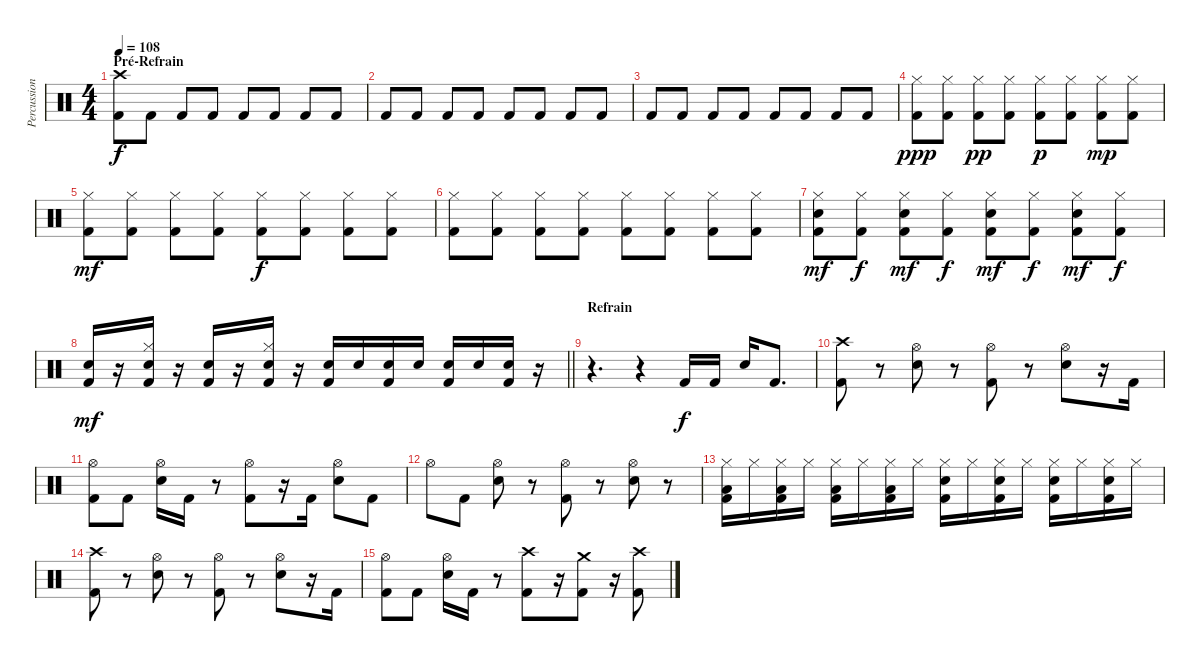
\track ("Percussions" "Percussion") {instrument percussion}
\staff {score}
\articulation defaults
\ts (4 4)
\section ("" "Pré-Refrain")
\tempo 108
\clef neutral
\ks c
("Crash high (hit)" "Kick (hit) 2").8{dy f} "Kick (hit) 2".8 "Kick (hit) 2".8 "Kick (hit) 2".8 "Kick (hit) 2".8 "Kick (hit) 2".8 "Kick (hit) 2".8 "Kick (hit) 2".8 |
"Kick (hit) 2".8 "Kick (hit) 2".8 "Kick (hit) 2".8 "Kick (hit) 2".8 "Kick (hit) 2".8 "Kick (hit) 2".8 "Kick (hit) 2".8 "Kick (hit) 2".8 |
"Kick (hit) 2".8 "Kick (hit) 2".8 "Kick (hit) 2".8 "Kick (hit) 2".8 "Kick (hit) 2".8 "Kick (hit) 2".8 "Kick (hit) 2".8 "Kick (hit) 2".8 |
("Hi-Hat (closed)" "Kick (hit) 2").8{dy ppp} ("Hi-Hat (closed)" "Kick (hit) 2").8 ("Hi-Hat (closed)" "Kick (hit) 2").8{dy pp} ("Hi-Hat (closed)" "Kick (hit) 2").8 ("Hi-Hat (closed)" "Kick (hit) 2").8{dy p} ("Hi-Hat (closed)" "Kick (hit) 2").8 ("Hi-Hat (closed)" "Kick (hit) 2").8{dy mp} ("Hi-Hat (closed)" "Kick (hit) 2").8 |
("Hi-Hat (closed)" "Kick (hit) 2").8{dy mf} ("Hi-Hat (closed)" "Kick (hit) 2").8 ("Hi-Hat (closed)" "Kick (hit) 2").8 ("Hi-Hat (closed)" "Kick (hit) 2").8 ("Hi-Hat (closed)" "Kick (hit) 2").8{dy f} ("Hi-Hat (closed)" "Kick (hit) 2").8 ("Hi-Hat (closed)" "Kick (hit) 2").8 ("Hi-Hat (closed)" "Kick (hit) 2").8 |
("Hi-Hat (closed)" "Kick (hit) 2").8 ("Hi-Hat (closed)" "Kick (hit) 2").8 ("Hi-Hat (closed)" "Kick (hit) 2").8 ("Hi-Hat (closed)" "Kick (hit) 2").8 ("Hi-Hat (closed)" "Kick (hit) 2").8 ("Hi-Hat (closed)" "Kick (hit) 2").8 ("Hi-Hat (closed)" "Kick (hit) 2").8 ("Hi-Hat (closed)" "Kick (hit) 2").8 |
("Hi-Hat (closed)" "Snare (hit) 2" "Kick (hit) 2").8{dy mf} ("Hi-Hat (closed)" "Kick (hit) 2").8{dy f} ("Hi-Hat (closed)" "Snare (hit) 2" "Kick (hit) 2").8{dy mf} ("Hi-Hat (closed)" "Kick (hit) 2").8{dy f} ("Hi-Hat (closed)" "Snare (hit) 2" "Kick (hit) 2").8{dy mf} ("Hi-Hat (closed)" "Kick (hit) 2").8{dy f} ("Hi-Hat (closed)" "Snare (hit) 2" "Kick (hit) 2").8{dy mf} ("Hi-Hat (closed)" "Kick (hit) 2").8{dy f} |
\barLineRight lightlight
("Snare (hit) 2" "Kick (hit) 2").16{dy mf} r.16 ("Hi-Hat (closed)" "Snare (hit) 2" "Kick (hit) 2").16 r.16 ("Snare (hit) 2" "Kick (hit) 2").16 r.16 ("Hi-Hat (closed)" "Snare (hit) 2" "Kick (hit) 2").16 r.16 ("Snare (hit) 2" "Kick (hit) 2").16 "Snare (hit) 2".16 ("Snare (hit) 2" "Kick (hit) 2").16 "Snare (hit) 2".16 ("Snare (hit) 2" "Kick (hit) 2").16 "Snare (hit) 2".16 ("Snare (hit) 2" "Kick (hit) 2").16 r.16 |
\section ("" "Refrain")
r.4{d} r.4 "Kick (hit) 2".16{dy f} "Kick (hit) 2".16 "Snare (hit) 2".16 "Kick (hit) 2".8{d} |
("Crash high (hit)" "Kick (hit) 2").8 r.8 ("Hi-Hat (open)" "Snare (hit) 2").8 r.8 ("Hi-Hat (open)" "Kick (hit) 2").8 r.8 ("Hi-Hat (open)" "Snare (hit) 2").8 r.16 "Kick (hit) 2".16 |
("Hi-Hat (open)" "Kick (hit) 2").8 "Kick (hit) 2".8 ("Hi-Hat (open)" "Snare (hit) 2").16 "Kick (hit) 2".16 r.8 ("Hi-Hat (open)" "Kick (hit) 2").8 r.16 "Kick (hit) 2".16 ("Hi-Hat (open)" "Snare (hit) 2").8 "Kick (hit) 2".8 |
"Hi-Hat (open)".8 "Kick (hit) 2".8 ("Hi-Hat (open)" "Snare (hit) 2").8 r.8 ("Hi-Hat (open)" "Kick (hit) 2").8 r.8 ("Hi-Hat (open)" "Snare (hit) 2").8 r.8 |
("Hi-Hat (closed)" "Low Floor Tom (hit)" "Kick (hit) 2").16 "Hi-Hat (closed)".16 ("Hi-Hat (closed)" "Low Floor Tom (hit)" "Kick (hit) 2").16 "Hi-Hat (closed)".16 ("Hi-Hat (closed)" "Low Floor Tom (hit)" "Kick (hit) 2").16 "Hi-Hat (closed)".16 ("Hi-Hat (closed)" "Low Floor Tom (hit)" "Kick (hit) 2").16 "Hi-Hat (closed)".16 ("Hi-Hat (closed)" "Electric Snare (hit)" "Kick (hit) 2").16 "Hi-Hat (closed)".16 ("Hi-Hat (closed)" "Electric Snare (hit)" "Kick (hit) 2").16 "Hi-Hat (closed)".16 ("Hi-Hat (closed)" "Electric Snare (hit)" "Kick (hit) 2").16 "Hi-Hat (closed)".16 ("Hi-Hat (closed)" "Electric Snare (hit)" "Kick (hit) 2").16 "Hi-Hat (closed)".16 |
("Crash high (hit)" "Kick (hit) 2").8 r.8 ("Hi-Hat (open)" "Snare (hit) 2").8 r.8 ("Hi-Hat (open)" "Kick (hit) 2").8 r.8 ("Hi-Hat (open)" "Snare (hit) 2").8 r.16 "Kick (hit) 2".16 |
("Hi-Hat (open)" "Kick (hit) 2").8 "Kick (hit) 2".8 ("Hi-Hat (open)" "Snare (hit) 2").16 "Kick (hit) 2".16 r.8 ("Crash high (hit)" "Kick (hit) 2").8 r.16 ("Crash medium (hit)" "Kick (hit) 2").8 r.16 ("Crash high (hit)" "Kick (hit) 2").8
